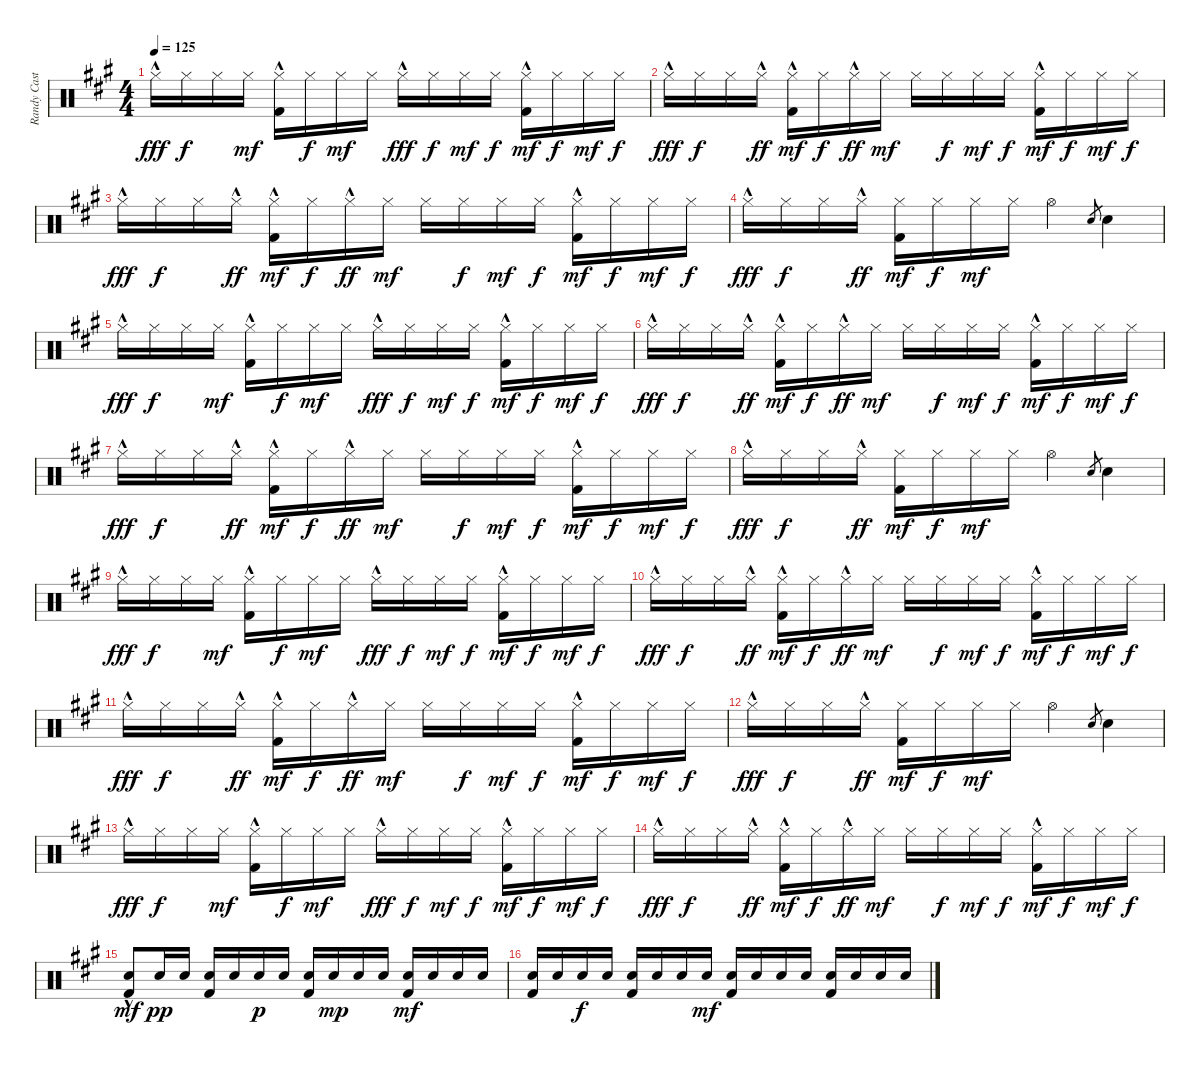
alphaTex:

\track ("Randy Castillo - Drums" "Randy Cast") {instrument percussion}
\staff {score}
\articulation defaults
\ts (4 4)
\tempo 125
\clef neutral
\ks a "Hi-Hat (closed)"{hac}.16{dy fff} "Hi-Hat (closed)".16{dy f} "Hi-Hat (closed)".16 "Hi-Hat (closed)".16{dy mf}
("Hi-Hat (closed)"{hac} "Kick (hit) 2").16 "Hi-Hat (closed)".16{dy f} "Hi-Hat (closed)".16{dy mf} "Hi-Hat (closed)".16 "Hi-Hat (closed)"{hac}.16{dy fff} "Hi-Hat (closed)".16{dy f} "Hi-Hat (closed)".16{dy mf} "Hi-Hat (closed)".16{dy f} ("Hi-Hat (closed)"{hac} "Kick (hit) 2").16{dy mf} "Hi-Hat (closed)".16{dy f} "Hi-Hat (closed)".16{dy mf} "Hi-Hat (closed)".16{dy f} |
"Hi-Hat (closed)"{hac}.16{dy fff} "Hi-Hat (closed)".16{dy f} "Hi-Hat (closed)".16 "Hi-Hat (closed)"{hac}.16{dy ff} ("Hi-Hat (closed)"{hac} "Kick (hit) 2").16{dy mf} "Hi-Hat (closed)".16{dy f} "Hi-Hat (closed)"{hac}.16{dy ff} "Hi-Hat (closed)".16{dy mf} "Hi-Hat (closed)".16 "Hi-Hat (closed)".16{dy f} "Hi-Hat (closed)".16{dy mf} "Hi-Hat (closed)".16{dy f} ("Hi-Hat (closed)"{hac} "Kick (hit) 2").16{dy mf} "Hi-Hat (closed)".16{dy f} "Hi-Hat (closed)".16{dy mf} "Hi-Hat (closed)".16{dy f} |
"Hi-Hat (closed)"{hac}.16{dy fff} "Hi-Hat (closed)".16{dy f} "Hi-Hat (closed)".16 "Hi-Hat (closed)"{hac}.16{dy ff} ("Hi-Hat (closed)"{hac} "Kick (hit) 2").16{dy mf} "Hi-Hat (closed)".16{dy f} "Hi-Hat (closed)"{hac}.16{dy ff} "Hi-Hat (closed)".16{dy mf} "Hi-Hat (closed)".16 "Hi-Hat (closed)".16{dy f} "Hi-Hat (closed)".16{dy mf} "Hi-Hat (closed)".16{dy f} ("Hi-Hat (closed)"{hac} "Kick (hit) 2").16{dy mf} "Hi-Hat (closed)".16{dy f} "Hi-Hat (closed)".16{dy mf} "Hi-Hat (closed)".16{dy f} |
"Hi-Hat (closed)"{hac}.16{dy fff} "Hi-Hat (closed)".16{dy f} "Hi-Hat (closed)".16 "Hi-Hat (closed)"{hac}.16{dy ff} ("Hi-Hat (closed)" "Kick (hit) 2").16{dy mf} "Hi-Hat (closed)".16{dy f} "Hi-Hat (closed)".16{dy mf} "Hi-Hat (closed)".16 "Hi-Hat (open)".4 "Snare (hit) 2".8{gr} "Snare (hit) 2".4 |
"Hi-Hat (closed)"{hac}.16{dy fff} "Hi-Hat (closed)".16{dy f} "Hi-Hat (closed)".16 "Hi-Hat (closed)".16{dy mf} ("Hi-Hat (closed)"{hac} "Kick (hit) 2").16 "Hi-Hat (closed)".16{dy f} "Hi-Hat (closed)".16{dy mf} "Hi-Hat (closed)".16 "Hi-Hat (closed)"{hac}.16{dy fff} "Hi-Hat (closed)".16{dy f} "Hi-Hat (closed)".16{dy mf} "Hi-Hat (closed)".16{dy f} ("Hi-Hat (closed)"{hac} "Kick (hit) 2").16{dy mf} "Hi-Hat (closed)".16{dy f} "Hi-Hat (closed)".16{dy mf} "Hi-Hat (closed)".16{dy f} |
"Hi-Hat (closed)"{hac}.16{dy fff} "Hi-Hat (closed)".16{dy f} "Hi-Hat (closed)".16 "Hi-Hat (closed)"{hac}.16{dy ff} ("Hi-Hat (closed)"{hac} "Kick (hit) 2").16{dy mf} "Hi-Hat (closed)".16{dy f} "Hi-Hat (closed)"{hac}.16{dy ff} "Hi-Hat (closed)".16{dy mf} "Hi-Hat (closed)".16 "Hi-Hat (closed)".16{dy f} "Hi-Hat (closed)".16{dy mf} "Hi-Hat (closed)".16{dy f} ("Hi-Hat (closed)"{hac} "Kick (hit) 2").16{dy mf} "Hi-Hat (closed)".16{dy f} "Hi-Hat (closed)".16{dy mf} "Hi-Hat (closed)".16{dy f} |
"Hi-Hat (closed)"{hac}.16{dy fff} "Hi-Hat (closed)".16{dy f} "Hi-Hat (closed)".16 "Hi-Hat (closed)"{hac}.16{dy ff} ("Hi-Hat (closed)"{hac} "Kick (hit) 2").16{dy mf} "Hi-Hat (closed)".16{dy f} "Hi-Hat (closed)"{hac}.16{dy ff} "Hi-Hat (closed)".16{dy mf} "Hi-Hat (closed)".16 "Hi-Hat (closed)".16{dy f} "Hi-Hat (closed)".16{dy mf} "Hi-Hat (closed)".16{dy f} ("Hi-Hat (closed)"{hac} "Kick (hit) 2").16{dy mf} "Hi-Hat (closed)".16{dy f} "Hi-Hat (closed)".16{dy mf} "Hi-Hat (closed)".16{dy f} |
"Hi-Hat (closed)"{hac}.16{dy fff} "Hi-Hat (closed)".16{dy f} "Hi-Hat (closed)".16 "Hi-Hat (closed)"{hac}.16{dy ff} ("Hi-Hat (closed)" "Kick (hit) 2").16{dy mf} "Hi-Hat (closed)".16{dy f} "Hi-Hat (closed)".16{dy mf} "Hi-Hat (closed)".16 "Hi-Hat (open)".4 "Snare (hit) 2".8{gr} "Snare (hit) 2".4 |
"Hi-Hat (closed)"{hac}.16{dy fff} "Hi-Hat (closed)".16{dy f} "Hi-Hat (closed)".16 "Hi-Hat (closed)".16{dy mf} ("Hi-Hat (closed)"{hac} "Kick (hit) 2").16 "Hi-Hat (closed)".16{dy f} "Hi-Hat (closed)".16{dy mf} "Hi-Hat (closed)".16 "Hi-Hat (closed)"{hac}.16{dy fff} "Hi-Hat (closed)".16{dy f} "Hi-Hat (closed)".16{dy mf} "Hi-Hat (closed)".16{dy f} ("Hi-Hat (closed)"{hac} "Kick (hit) 2").16{dy mf} "Hi-Hat (closed)".16{dy f} "Hi-Hat (closed)".16{dy mf} "Hi-Hat (closed)".16{dy f} |
"Hi-Hat (closed)"{hac}.16{dy fff} "Hi-Hat (closed)".16{dy f} "Hi-Hat (closed)".16 "Hi-Hat (closed)"{hac}.16{dy ff} ("Hi-Hat (closed)"{hac} "Kick (hit) 2").16{dy mf} "Hi-Hat (closed)".16{dy f} "Hi-Hat (closed)"{hac}.16{dy ff} "Hi-Hat (closed)".16{dy mf} "Hi-Hat (closed)".16 "Hi-Hat (closed)".16{dy f} "Hi-Hat (closed)".16{dy mf} "Hi-Hat (closed)".16{dy f} ("Hi-Hat (closed)"{hac} "Kick (hit) 2").16{dy mf} "Hi-Hat (closed)".16{dy f} "Hi-Hat (closed)".16{dy mf} "Hi-Hat (closed)".16{dy f} |
"Hi-Hat (closed)"{hac}.16{dy fff} "Hi-Hat (closed)".16{dy f} "Hi-Hat (closed)".16 "Hi-Hat (closed)"{hac}.16{dy ff} ("Hi-Hat (closed)"{hac} "Kick (hit) 2").16{dy mf} "Hi-Hat (closed)".16{dy f} "Hi-Hat (closed)"{hac}.16{dy ff} "Hi-Hat (closed)".16{dy mf} "Hi-Hat (closed)".16 "Hi-Hat (closed)".16{dy f} "Hi-Hat (closed)".16{dy mf} "Hi-Hat (closed)".16{dy f} ("Hi-Hat (closed)"{hac} "Kick (hit) 2").16{dy mf} "Hi-Hat (closed)".16{dy f} "Hi-Hat (closed)".16{dy mf} "Hi-Hat (closed)".16{dy f} |
"Hi-Hat (closed)"{hac}.16{dy fff} "Hi-Hat (closed)".16{dy f} "Hi-Hat (closed)".16 "Hi-Hat (closed)"{hac}.16{dy ff} ("Hi-Hat (closed)" "Kick (hit) 2").16{dy mf} "Hi-Hat (closed)".16{dy f} "Hi-Hat (closed)".16{dy mf} "Hi-Hat (closed)".16 "Hi-Hat (open)".4 "Snare (hit) 2".8{gr} "Snare (hit) 2".4 |
"Hi-Hat (closed)"{hac}.16{dy fff} "Hi-Hat (closed)".16{dy f} "Hi-Hat (closed)".16 "Hi-Hat (closed)".16{dy mf} ("Hi-Hat (closed)"{hac} "Kick (hit) 2").16 "Hi-Hat (closed)".16{dy f} "Hi-Hat (closed)".16{dy mf} "Hi-Hat (closed)".16 "Hi-Hat (closed)"{hac}.16{dy fff} "Hi-Hat (closed)".16{dy f} "Hi-Hat (closed)".16{dy mf} "Hi-Hat (closed)".16{dy f} ("Hi-Hat (closed)"{hac} "Kick (hit) 2").16{dy mf} "Hi-Hat (closed)".16{dy f} "Hi-Hat (closed)".16{dy mf} "Hi-Hat (closed)".16{dy f} |
"Hi-Hat (closed)"{hac}.16{dy fff} "Hi-Hat (closed)".16{dy f} "Hi-Hat (closed)".16 "Hi-Hat (closed)"{hac}.16{dy ff} ("Hi-Hat (closed)"{hac} "Kick (hit) 2").16{dy mf} "Hi-Hat (closed)".16{dy f} "Hi-Hat (closed)"{hac}.16{dy ff} "Hi-Hat (closed)".16{dy mf} "Hi-Hat (closed)".16 "Hi-Hat (closed)".16{dy f} "Hi-Hat (closed)".16{dy mf} "Hi-Hat (closed)".16{dy f} ("Hi-Hat (closed)"{hac} "Kick (hit) 2").16{dy mf} "Hi-Hat (closed)".16{dy f} "Hi-Hat (closed)".16{dy mf} "Hi-Hat (closed)".16{dy f} |
("Snare (hit) 2"{hac} "Kick (hit) 2").8{dy mf} "Snare (hit) 2".16{dy pp} "Snare (hit) 2".16 ("Snare (hit) 2" "Kick (hit) 2").16 "Snare (hit) 2".16 "Snare (hit) 2".16{dy p} "Snare (hit) 2".16 ("Snare (hit) 2" "Kick (hit) 2").16 "Snare (hit) 2".16{dy mp} "Snare (hit) 2".16 "Snare (hit) 2".16 ("Snare (hit) 2" "Kick (hit) 2").16{dy mf} "Snare (hit) 2".16 "Snare (hit) 2".16 "Snare (hit) 2".16 |
("Snare (hit) 2" "Kick (hit) 2").16 "Snare (hit) 2".16 "Snare (hit) 2".16{dy f} "Snare (hit) 2".16 ("Snare (hit) 2" "Kick (hit) 2").16 "Snare (hit) 2".16 "Snare (hit) 2".16 "Snare (hit) 2".16{dy mf} ("Snare (hit) 2" "Kick (hit) 2").16 "Snare (hit) 2".16 "Snare (hit) 2".16 "Snare (hit) 2".16 ("Snare (hit) 2" "Kick (hit) 2").16 "Snare (hit) 2".16 "Snare (hit) 2".16 "Snare (hit) 2".16
